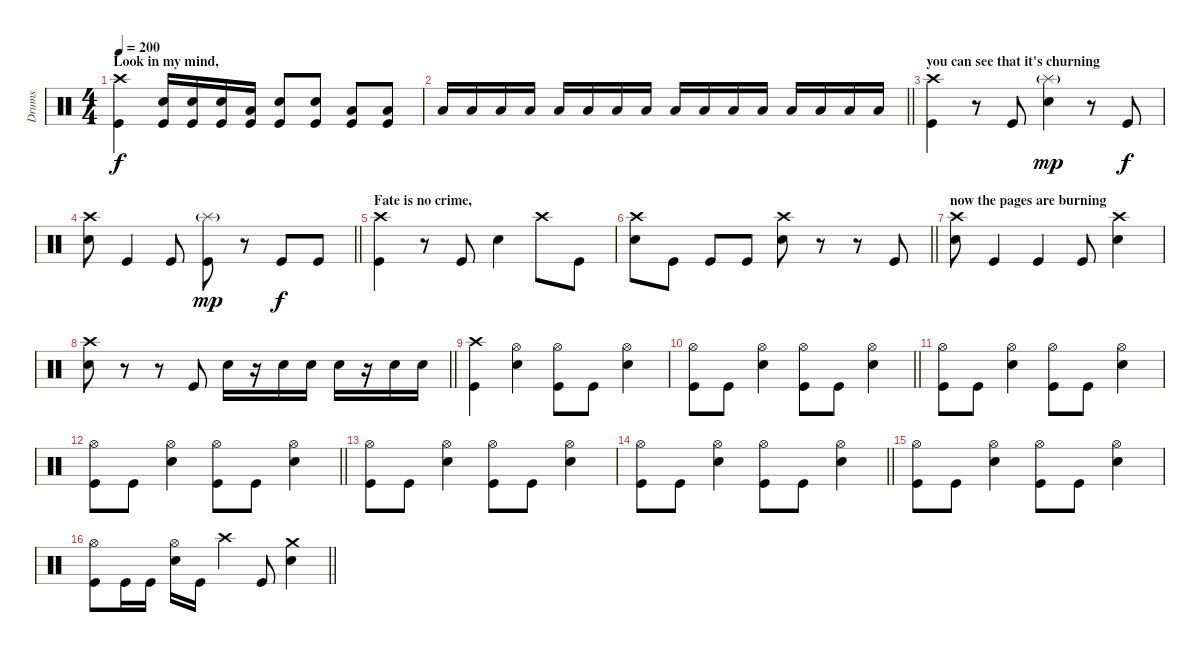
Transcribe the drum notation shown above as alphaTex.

\track ("Drums" "Drums") {instrument percussion}
\staff {score}
\articulation defaults
\ts (4 4)
\section ("" "Look in my mind,")
\tempo 200
\clef neutral
\ks c
("Crash high (hit)" "Kick (hit)").4{dy f} ("Snare (hit) 2" "Kick (hit)").16 ("Snare (hit) 2" "Kick (hit)").16 ("Snare (hit) 2" "Kick (hit)").16 ("Low Tom (hit)" "Kick (hit)").16 ("Snare (hit) 2" "Kick (hit)").8 ("Snare (hit) 2" "Kick (hit)").8 ("Low Tom (hit)" "Kick (hit)").8 ("Low Tom (hit)" "Kick (hit)").8 |
\barLineRight lightlight "Low Floor Tom (hit)".16 "Low Floor Tom (hit)".16 "Low Floor Tom (hit)".16 "Low Floor Tom (hit)".16 "Low Floor Tom (hit)".16 "Low Floor Tom (hit)".16 "Low Floor Tom (hit)".16 "Low Floor Tom (hit)".16 "Low Floor Tom (hit)".16 "Low Floor Tom (hit)".16 "Low Floor Tom (hit)".16 "Low Floor Tom (hit)".16 "Low Floor Tom (hit)".16 "Low Floor Tom (hit)".16 "Low Floor Tom (hit)".16 "Low Floor Tom (hit)".16
|
\section ("" "you can see that it's churning")
("Crash high (hit)" "Kick (hit)").4 r.8 "Kick (hit)".8 ("Splash (hit)"{g} "Snare (hit) 2").4{dy mp} r.8 "Kick (hit)".8{dy f} |
\barLineRight lightlight
("Crash high (hit)" "Snare (hit) 2").8 "Kick (hit)".4 "Kick (hit)".8 ("Splash (hit)"{g} "Kick (hit)").8{dy mp} r.8 "Kick (hit)".8{dy f} "Kick (hit)".8 |
\section ("" "Fate is no crime,")
("Crash high (hit)" "Kick (hit)").4 r.8 "Kick (hit)".8 "Snare (hit) 2".4 "Crash high (hit)".8 "Kick (hit)".8 |
\barLineRight lightlight
("Crash high (hit)" "Snare (hit) 2").8 "Kick (hit)".8 "Kick (hit)".8 "Kick (hit)".8 ("Crash high (hit)" "Snare (hit) 2").8 r.8 r.8 "Kick (hit)".8 |
\section ("" "now the pages are burning")
("Crash high (hit)" "Snare (hit) 2").8 "Kick (hit)".4 "Kick (hit)".4 "Kick (hit)".8 ("Crash high (hit)" "Snare (hit) 2").4 |
\barLineRight lightlight
("Crash high (hit)" "Snare (hit) 2").8 r.8 r.8 "Kick (hit)".8 "Snare (hit) 2".16 r.16 "Snare (hit) 2".16 "Snare (hit) 2".16 "Snare (hit) 2".16 r.16 "Snare (hit) 2".16 "Snare (hit) 2".16 |
\section ("" "")
("Crash high (hit)" "Kick (hit)").4 ("Hi-Hat (open)" "Snare (hit) 2").4 ("Hi-Hat (open)" "Kick (hit)").8 "Kick (hit)".8 ("Hi-Hat (open)" "Snare (hit) 2").4 |
\barLineRight lightlight
("Hi-Hat (open)" "Kick (hit)").8 "Kick (hit)".8 ("Hi-Hat (open)" "Snare (hit) 2").4 ("Hi-Hat (open)" "Kick (hit)").8 "Kick (hit)".8 ("Hi-Hat (open)" "Snare (hit) 2").4 |
\section ("" "")
("Hi-Hat (open)" "Kick (hit)").8 "Kick (hit)".8 ("Hi-Hat (open)" "Snare (hit) 2").4 ("Hi-Hat (open)" "Kick (hit)").8 "Kick (hit)".8 ("Hi-Hat (open)" "Snare (hit) 2").4 |
\barLineRight lightlight
("Hi-Hat (open)" "Kick (hit)").8 "Kick (hit)".8 ("Hi-Hat (open)" "Snare (hit) 2").4 ("Hi-Hat (open)" "Kick (hit)").8 "Kick (hit)".8 ("Hi-Hat (open)" "Snare (hit) 2").4 |
("Hi-Hat (open)" "Kick (hit)").8 "Kick (hit)".8 ("Hi-Hat (open)" "Snare (hit) 2").4 ("Hi-Hat (open)" "Kick (hit)").8 "Kick (hit)".8 ("Hi-Hat (open)" "Snare (hit) 2").4 |
\barLineRight lightlight
("Hi-Hat (open)" "Kick (hit)").8 "Kick (hit)".8 ("Hi-Hat (open)" "Snare (hit) 2").4 ("Hi-Hat (open)" "Kick (hit)").8 "Kick (hit)".8 ("Hi-Hat (open)" "Snare (hit) 2").4 |
("Hi-Hat (open)" "Kick (hit)").8 "Kick (hit)".8 ("Hi-Hat (open)" "Snare (hit) 2").4 ("Hi-Hat (open)" "Kick (hit)").8 "Kick (hit)".8 ("Hi-Hat (open)" "Snare (hit) 2").4 |
\barLineRight lightlight
("Hi-Hat (open)" "Kick (hit)").8 "Kick (hit)".16 "Kick (hit)".16 ("Hi-Hat (open)" "Snare (hit) 2").16 "Kick (hit)".16 "Crash high (hit)".4 "Kick (hit)".8 ("Crash medium (hit)" "Snare (hit) 2").4
